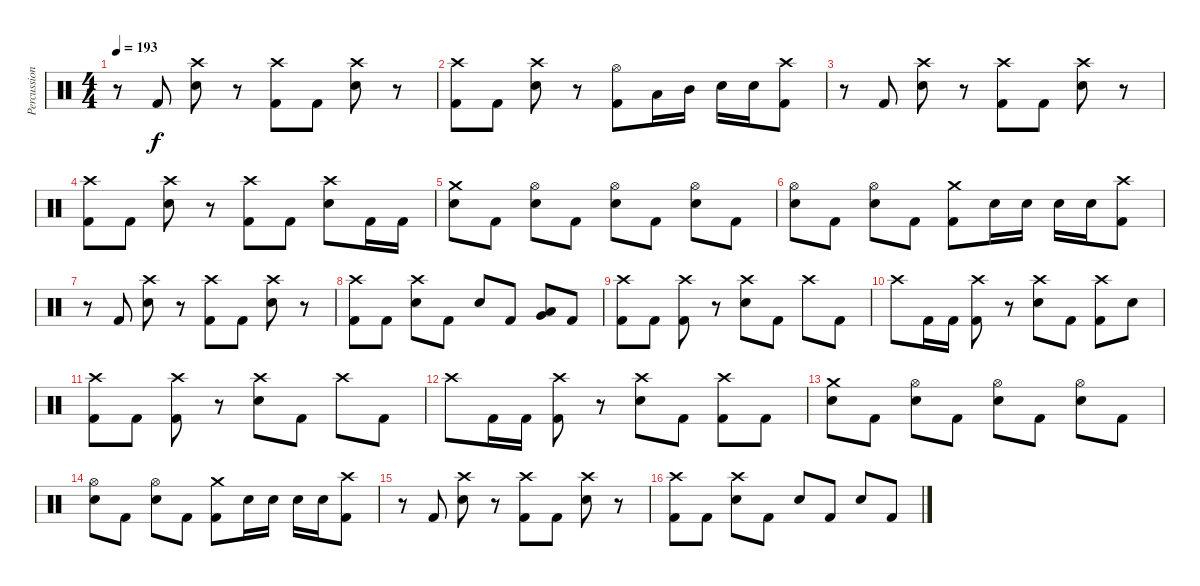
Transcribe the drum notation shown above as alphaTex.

\track ("Percussion" "Percussion") {instrument percussion}
\staff {score}
\articulation defaults
\ts (4 4)
\tempo 193
\clef neutral
\ks c
r.8{dy f} "Kick (hit) 2".8 ("Crash high (hit)" "Snare (hit) 2").8 r.8 ("Crash high (hit)" "Kick (hit) 2").8 "Kick (hit) 2".8 ("Crash high (hit)" "Snare (hit) 2").8 r.8 |
("Crash high (hit)" "Kick (hit) 2").8 "Kick (hit) 2".8 ("Crash high (hit)" "Snare (hit) 2").8 r.8 ("Hi-Hat (open)" "Kick (hit) 2").8 "Low Tom (hit)".16 "Mid Tom (hit)".16 "Snare (hit) 2".16 "Snare (hit) 2".16 ("Crash high (hit)" "Kick (hit) 2").8 |
r.8 "Kick (hit) 2".8 ("Crash high (hit)" "Snare (hit) 2").8 r.8 ("Crash high (hit)" "Kick (hit) 2").8 "Kick (hit) 2".8 ("Crash high (hit)" "Snare (hit) 2").8 r.8 |
("Crash high (hit)" "Kick (hit) 2").8 "Kick (hit) 2".8 ("Crash high (hit)" "Snare (hit) 2").8 r.8 ("Crash high (hit)" "Kick (hit) 2").8 "Kick (hit) 2".8 ("Crash high (hit)" "Snare (hit) 2").8 "Kick (hit) 2".16 "Kick (hit) 2".16 |
("Crash medium (hit)" "Snare (hit) 2").8 "Kick (hit) 2".8 ("Hi-Hat (open)" "Snare (hit) 2").8 "Kick (hit) 2".8 ("Hi-Hat (open)" "Snare (hit) 2").8 "Kick (hit) 2".8 ("Hi-Hat (open)" "Snare (hit) 2").8 "Kick (hit) 2".8 |
("Hi-Hat (open)" "Snare (hit) 2").8 "Kick (hit) 2".8 ("Hi-Hat (open)" "Snare (hit) 2").8 "Kick (hit) 2".8 ("Crash medium (hit)" "Kick (hit) 2").8 "Snare (hit) 2".16 "Snare (hit) 2".16 "Snare (hit) 2".16 "Snare (hit) 2".16 ("Crash high (hit)" "Kick (hit) 2").8 |
r.8 "Kick (hit) 2".8 ("Crash high (hit)" "Snare (hit) 2").8 r.8 ("Crash high (hit)" "Kick (hit) 2").8 "Kick (hit) 2".8 ("Crash high (hit)" "Snare (hit) 2").8 r.8 |
("Crash high (hit)" "Kick (hit) 2").8 "Kick (hit) 2".8 ("Crash high (hit)" "Snare (hit) 2").8 "Kick (hit) 2".8 "Snare (hit) 2".8 "Kick (hit) 2".8 ("Very Low Tom (hit)" "Low Tom (hit)").8 "Kick (hit) 2".8 |
("Crash high (hit)" "Kick (hit) 2").8 "Kick (hit) 2".8 ("Crash high (hit)" "Kick (hit) 2").8 r.8 ("Crash high (hit)" "Snare (hit) 2").8 "Kick (hit) 2".8 "Crash high (hit)".8 "Kick (hit) 2".8 |
"Crash high (hit)".8 "Kick (hit) 2".16 "Kick (hit) 2".16 ("Crash high (hit)" "Kick (hit) 2").8 r.8 ("Crash high (hit)" "Snare (hit) 2").8 "Kick (hit) 2".8 ("Crash high (hit)" "Kick (hit) 2").8 "Snare (hit) 2".8 |
("Crash high (hit)" "Kick (hit) 2").8 "Kick (hit) 2".8 ("Crash high (hit)" "Kick (hit) 2").8 r.8 ("Crash high (hit)" "Snare (hit) 2").8 "Kick (hit) 2".8 "Crash high (hit)".8 "Kick (hit) 2".8 |
"Crash high (hit)".8 "Kick (hit) 2".16 "Kick (hit) 2".16 ("Crash high (hit)" "Kick (hit) 2").8 r.8 ("Crash high (hit)" "Snare (hit) 2").8 "Kick (hit) 2".8 ("Crash high (hit)" "Kick (hit) 2").8 "Kick (hit) 2".8 |
("Crash medium (hit)" "Snare (hit) 2").8 "Kick (hit) 2".8 ("Hi-Hat (open)" "Snare (hit) 2").8 "Kick (hit) 2".8 ("Hi-Hat (open)" "Snare (hit) 2").8 "Kick (hit) 2".8 ("Hi-Hat (open)" "Snare (hit) 2").8 "Kick (hit) 2".8 |
("Hi-Hat (open)" "Snare (hit) 2").8 "Kick (hit) 2".8 ("Hi-Hat (open)" "Snare (hit) 2").8 "Kick (hit) 2".8 ("Crash medium (hit)" "Kick (hit) 2").8 "Snare (hit) 2".16 "Snare (hit) 2".16 "Snare (hit) 2".16 "Snare (hit) 2".16 ("Crash high (hit)" "Kick (hit) 2").8 |
r.8 "Kick (hit) 2".8 ("Crash high (hit)" "Snare (hit) 2").8 r.8 ("Crash high (hit)" "Kick (hit) 2").8 "Kick (hit) 2".8 ("Crash high (hit)" "Snare (hit) 2").8 r.8 |
("Crash high (hit)" "Kick (hit) 2").8 "Kick (hit) 2".8 ("Crash high (hit)" "Snare (hit) 2").8 "Kick (hit) 2".8 "Snare (hit) 2".8 "Kick (hit) 2".8 "Snare (hit) 2".8 "Kick (hit) 2".8
